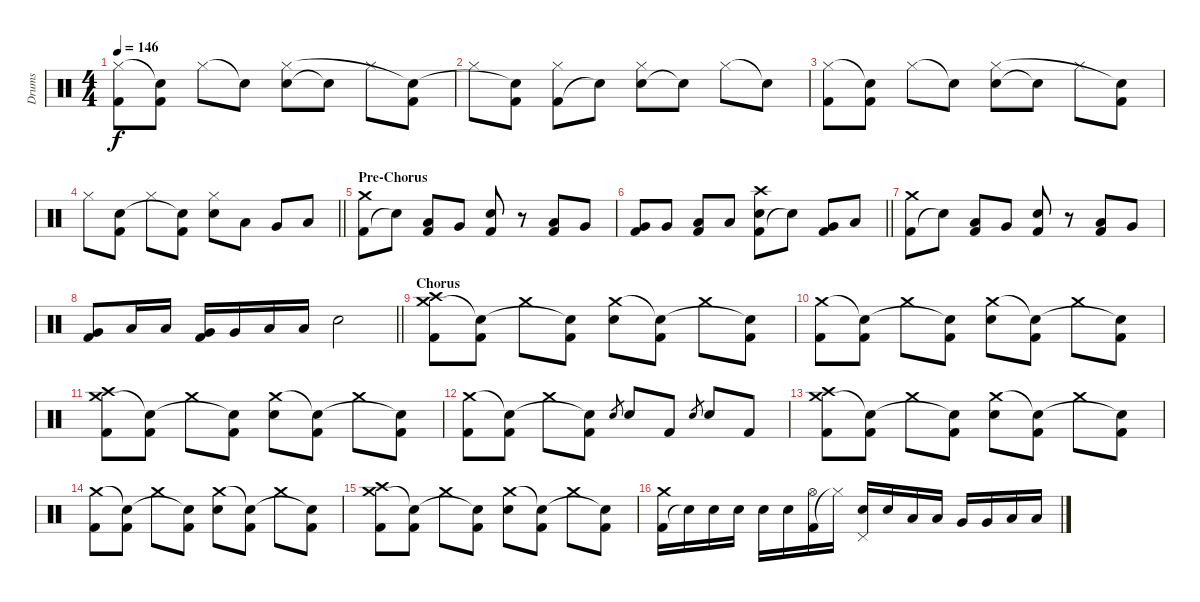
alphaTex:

\track ("Drums" "Drums") {instrument percussion}
\staff {score}
\articulation defaults
\ts (4 4)
\tempo 146
\clef neutral
\ks c
("Kick (hit) 2" "Hi-Hat (closed)").8{dy f} ("Kick (hit) 2" "Snare (hit)"{t}).8 "Hi-Hat (closed)".8 "Snare (hit)"{t}.8 ("Electric Snare (hit)" "Hi-Hat (closed)").8 "Snare (hit)"{t}.8 "Hi-Hat (closed)".8 ("Kick (hit) 2" "Snare (hit)"{t}).8 |
"Hi-Hat (closed)".8 ("Kick (hit) 2" "Snare (hit)"{t}).8 ("Kick (hit) 2" "Hi-Hat (closed)").8 "Snare (hit)"{t}.8 ("Electric Snare (hit)" "Hi-Hat (closed)").8 "Snare (hit)"{t}.8 "Hi-Hat (closed)".8 "Snare (hit)"{t}.8 |
("Kick (hit) 2" "Hi-Hat (closed)").8 ("Kick (hit) 2" "Snare (hit)"{t}).8 "Hi-Hat (closed)".8 "Snare (hit)"{t}.8 ("Electric Snare (hit)" "Hi-Hat (closed)").8 "Snare (hit)"{t}.8 "Hi-Hat (closed)".8 ("Kick (hit) 2" "Snare (hit)"{t}).8 |
\barLineRight lightlight "Hi-Hat (closed)".8
("Kick (hit) 2" "Electric Snare (hit)").8 "Hi-Hat (closed)".8 ("Kick (hit) 2" "Snare (hit)"{t}).8 ("Electric Snare (hit)" "Hi-Hat (closed)").8 "Low Tom (hit)".8 "Very Low Tom (hit)".8 "Low Floor Tom (hit)".8 |
\section ("" "Pre-Chorus")
("Kick (hit) 2" "Crash medium (hit)").8 "Snare (hit)"{t}.8 ("Kick (hit) 2" "Low Tom (hit)").8 "Very Low Tom (hit)".8 ("Kick (hit) 2" "Electric Snare (hit)").8 r.8 ("Kick (hit) 2" "Low Tom (hit)").8 "Very Low Tom (hit)".8 |
\barLineRight lightlight
("Kick (hit) 2" "Very Low Tom (hit)").8 "Very Low Tom (hit)".8 ("Kick (hit) 2" "Low Floor Tom (hit)").8 "Low Floor Tom (hit)".8 ("Kick (hit) 2" "Electric Snare (hit)" "Crash high (hit)").8 "Snare (hit)"{t}.8 ("Kick (hit) 2" "Very Low Tom (hit)").8 "Low Floor Tom (hit)".8 |
("Kick (hit) 2" "Crash medium (hit)").8 "Snare (hit)"{t}.8 ("Kick (hit) 2" "Low Tom (hit)").8 "Very Low Tom (hit)".8 ("Kick (hit) 2" "Electric Snare (hit)").8 r.8 ("Kick (hit) 2" "Low Tom (hit)").8 "Very Low Tom (hit)".8 |
\barLineRight lightlight
("Kick (hit) 2" "Very Low Tom (hit)").8 "Low Tom (hit)".16 "Low Tom (hit)".16 ("Kick (hit) 2" "Very Low Tom (hit)").16 "Very Low Tom (hit)".16 "Low Floor Tom (hit)".16 "Low Floor Tom (hit)".16 "Electric Snare (hit)".2 |
\section ("" "Chorus")
("Kick (hit) 2" "Crash medium (hit)" "Crash high (hit)").8 ("Kick (hit) 2" "Snare (hit)"{t}).8 "Crash medium (hit)".8 ("Kick (hit) 2" "Snare (hit)"{t}).8 ("Electric Snare (hit)" "Crash medium (hit)").8 ("Kick (hit) 2" "Snare (hit)"{t}).8 "Crash medium (hit)".8 ("Kick (hit) 2" "Snare (hit)"{t}).8 |
("Kick (hit) 2" "Crash medium (hit)").8 ("Kick (hit) 2" "Snare (hit)"{t}).8 "Crash medium (hit)".8 ("Kick (hit) 2" "Snare (hit)"{t}).8 ("Electric Snare (hit)" "Crash medium (hit)").8 ("Kick (hit) 2" "Snare (hit)"{t}).8 "Crash medium (hit)".8 ("Kick (hit) 2" "Snare (hit)"{t}).8 |
("Kick (hit) 2" "Crash medium (hit)" "Crash high (hit)").8 ("Kick (hit) 2" "Snare (hit)"{t}).8 "Crash medium (hit)".8 ("Kick (hit) 2" "Snare (hit)"{t}).8 ("Electric Snare (hit)" "Crash medium (hit)").8 ("Kick (hit) 2" "Snare (hit)"{t}).8 "Crash medium (hit)".8 ("Kick (hit) 2" "Snare (hit)"{t}).8 |
("Kick (hit) 2" "Crash medium (hit)").8 ("Kick (hit) 2" "Snare (hit)"{t}).8 "Crash medium (hit)".8 ("Kick (hit) 2" "Snare (hit)"{t}).8 "Electric Snare (hit)".8{gr} "Electric Snare (hit)".8 "Kick (hit) 2".8 "Electric Snare (hit)".8{gr} "Electric Snare (hit)".8 "Kick (hit) 2".8 |
("Kick (hit) 2" "Crash medium (hit)" "Crash high (hit)").8 ("Kick (hit) 2" "Snare (hit)"{t}).8 "Crash medium (hit)".8 ("Kick (hit) 2" "Snare (hit)"{t}).8 ("Electric Snare (hit)" "Crash medium (hit)").8 ("Kick (hit) 2" "Snare (hit)"{t}).8 "Crash medium (hit)".8 ("Kick (hit) 2" "Snare (hit)"{t}).8 |
("Kick (hit) 2" "Crash medium (hit)").8 ("Kick (hit) 2" "Snare (hit)"{t}).8 "Crash medium (hit)".8 ("Kick (hit) 2" "Snare (hit)"{t}).8 ("Electric Snare (hit)" "Crash medium (hit)").8 ("Kick (hit) 2" "Snare (hit)"{t}).8 "Crash medium (hit)".8 ("Kick (hit) 2" "Snare (hit)"{t}).8 |
("Kick (hit) 2" "Crash medium (hit)" "Crash high (hit)").8 ("Kick (hit) 2" "Snare (hit)"{t}).8 "Crash medium (hit)".8 ("Kick (hit) 2" "Snare (hit)"{t}).8 ("Electric Snare (hit)" "Crash medium (hit)").8 ("Kick (hit) 2" "Snare (hit)"{t}).8 "Crash medium (hit)".8 ("Kick (hit) 2" "Snare (hit)"{t}).8 |
("Kick (hit) 2" "Crash medium (hit)").16 "Electric Snare (hit)"{t}.16 "Electric Snare (hit)".16 "Electric Snare (hit)".16 "Electric Snare (hit)".16 "Electric Snare (hit)".16 ("Kick (hit) 2" "Hi-Hat (open)").16 "Hi-Hat (closed)"{t}.16 ("Electric Snare (hit)" "Pedal Hi-Hat (hit)").16 "Electric Snare (hit)".16 "Low Tom (hit)".16 "Low Tom (hit)".16 "Very Low Tom (hit)".16 "Very Low Tom (hit)".16 "Low Floor Tom (hit)".16 "Low Floor Tom (hit)".16
